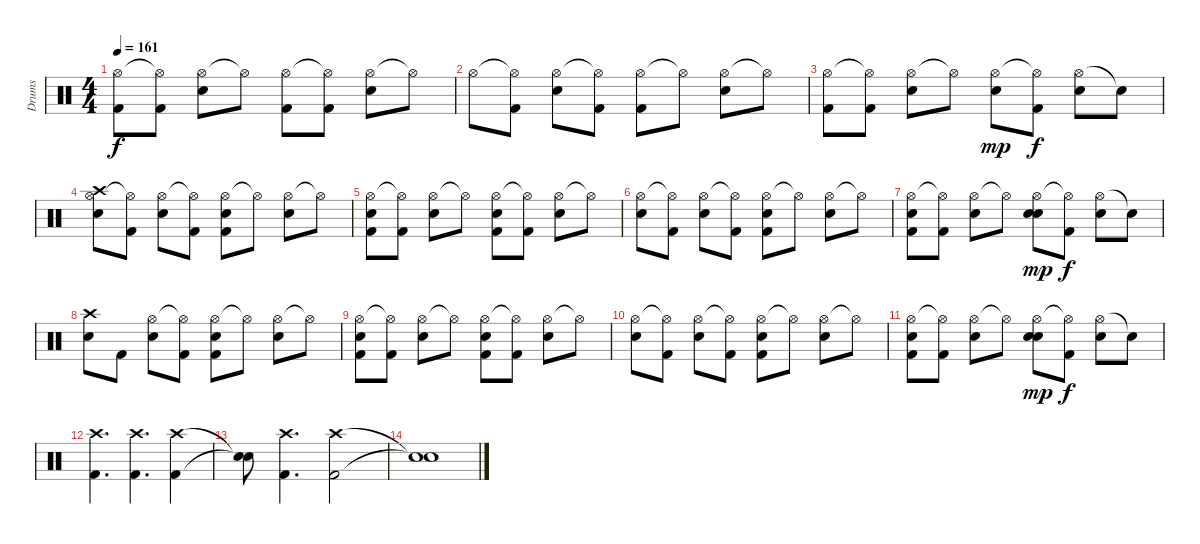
\track ("Drums" "Drums") {instrument percussion}
\staff {score}
\articulation defaults
\ts (4 4)
\tempo 161
\clef neutral
\ks c
("Hi-Hat (open)" "Kick (hit) 2").8{dy f} ("Hi-Hat (open)"{t} "Kick (hit) 2").8 ("Hi-Hat (open)" "Electric Snare (hit)").8 "Hi-Hat (open)"{t}.8 ("Hi-Hat (open)" "Kick (hit) 2").8 ("Hi-Hat (open)"{t} "Kick (hit) 2").8 ("Hi-Hat (open)" "Electric Snare (hit)").8 "Hi-Hat (open)"{t}.8 |
"Hi-Hat (open)".8 ("Hi-Hat (open)"{t} "Kick (hit) 2").8 ("Hi-Hat (open)" "Electric Snare (hit)").8 ("Hi-Hat (open)"{t} "Kick (hit) 2").8 ("Hi-Hat (open)" "Kick (hit) 2").8 "Hi-Hat (open)"{t}.8 ("Hi-Hat (open)" "Electric Snare (hit)").8 "Hi-Hat (open)"{t}.8 |
("Hi-Hat (open)" "Kick (hit) 2").8 ("Hi-Hat (open)"{t} "Kick (hit) 2").8 ("Hi-Hat (open)" "Electric Snare (hit)").8 "Hi-Hat (open)"{t}.8 ("Hi-Hat (open)" "Electric Snare (hit)").8{dy mp} ("Hi-Hat (open)"{t} "Kick (hit) 2").8{dy f} ("Hi-Hat (open)" "Electric Snare (hit)").8 "Snare (hit)"{t}.8 |
("Hi-Hat (open)" "Electric Snare (hit)" "Crash high (hit)").8 ("Hi-Hat (open)"{t} "Kick (hit) 2").8 ("Hi-Hat (open)" "Electric Snare (hit)").8 ("Hi-Hat (open)"{t} "Kick (hit) 2").8 ("Hi-Hat (open)" "Kick (hit) 2" "Electric Snare (hit)").8 "Hi-Hat (open)"{t}.8 ("Hi-Hat (open)" "Electric Snare (hit)").8 "Hi-Hat (open)"{t}.8 |
("Hi-Hat (open)" "Kick (hit) 2" "Electric Snare (hit)").8 ("Hi-Hat (open)"{t} "Kick (hit) 2").8 ("Hi-Hat (open)" "Electric Snare (hit)").8 "Hi-Hat (open)"{t}.8 ("Hi-Hat (open)" "Kick (hit) 2" "Electric Snare (hit)").8 ("Hi-Hat (open)"{t} "Kick (hit) 2").8 ("Hi-Hat (open)" "Electric Snare (hit)").8 "Hi-Hat (open)"{t}.8 |
("Hi-Hat (open)" "Electric Snare (hit)").8 ("Hi-Hat (open)"{t} "Kick (hit) 2").8 ("Hi-Hat (open)" "Electric Snare (hit)").8 ("Hi-Hat (open)"{t} "Kick (hit) 2").8 ("Hi-Hat (open)" "Kick (hit) 2" "Electric Snare (hit)").8 "Hi-Hat (open)"{t}.8 ("Hi-Hat (open)" "Electric Snare (hit)").8 "Hi-Hat (open)"{t}.8 |
("Hi-Hat (open)" "Kick (hit) 2" "Electric Snare (hit)").8 ("Hi-Hat (open)"{t} "Kick (hit) 2").8 ("Hi-Hat (open)" "Electric Snare (hit)").8 "Hi-Hat (open)"{t}.8 ("Hi-Hat (open)" "Electric Snare (hit)" "Electric Snare (hit)").8{dy mp} ("Hi-Hat (open)"{t} "Kick (hit) 2").8{dy f} ("Hi-Hat (open)" "Electric Snare (hit)").8 "Snare (hit)"{t}.8 |
("Electric Snare (hit)" "Crash high (hit)").8 "Kick (hit) 2".8 ("Hi-Hat (open)" "Electric Snare (hit)").8 ("Hi-Hat (open)"{t} "Kick (hit) 2").8 ("Hi-Hat (open)" "Kick (hit) 2" "Electric Snare (hit)").8 "Hi-Hat (open)"{t}.8 ("Hi-Hat (open)" "Electric Snare (hit)").8 "Hi-Hat (open)"{t}.8 |
("Hi-Hat (open)" "Kick (hit) 2" "Electric Snare (hit)").8 ("Hi-Hat (open)"{t} "Kick (hit) 2").8 ("Hi-Hat (open)" "Electric Snare (hit)").8 "Hi-Hat (open)"{t}.8 ("Hi-Hat (open)" "Kick (hit) 2" "Electric Snare (hit)").8 ("Hi-Hat (open)"{t} "Kick (hit) 2").8 ("Hi-Hat (open)" "Electric Snare (hit)").8 "Hi-Hat (open)"{t}.8 |
("Hi-Hat (open)" "Electric Snare (hit)").8 ("Hi-Hat (open)"{t} "Kick (hit) 2").8 ("Hi-Hat (open)" "Electric Snare (hit)").8 ("Hi-Hat (open)"{t} "Kick (hit) 2").8 ("Hi-Hat (open)" "Kick (hit) 2" "Electric Snare (hit)").8 "Hi-Hat (open)"{t}.8 ("Hi-Hat (open)" "Electric Snare (hit)").8 "Hi-Hat (open)"{t}.8 |
("Hi-Hat (open)" "Kick (hit) 2" "Electric Snare (hit)").8 ("Hi-Hat (open)"{t} "Kick (hit) 2").8 ("Hi-Hat (open)" "Electric Snare (hit)").8 "Hi-Hat (open)"{t}.8 ("Hi-Hat (open)" "Electric Snare (hit)" "Electric Snare (hit)").8{dy mp} ("Hi-Hat (open)"{t} "Kick (hit) 2").8{dy f} ("Hi-Hat (open)" "Electric Snare (hit)").8 "Snare (hit)"{t}.8 |
("Kick (hit) 2" "Crash high (hit)").4{d} ("Kick (hit) 2" "Crash high (hit)").4{d} ("Kick (hit) 2" "Crash high (hit)").4 |
("Snare (hit)"{t} "Snare (hit)"{t}).8 ("Kick (hit) 2" "Crash high (hit)").4{d} ("Kick (hit) 2" "Crash high (hit)").2 |
("Snare (hit)"{t} "Snare (hit)"{t}).1
